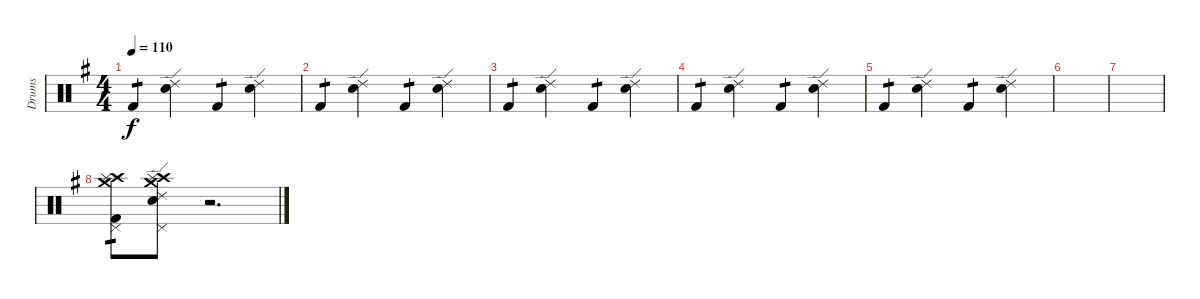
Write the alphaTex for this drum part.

\track ("Drums" "Drums") {instrument percussion}
\staff {score}
\articulation defaults
\ts (4 4)
\tempo 110
\clef neutral
\ks g "Kick (hit) 2".4{tp 1 dy f}
("Ride (edge) 2" "Snare (hit) 2").4 "Kick (hit) 2".4{tp 1} ("Ride (edge) 2" "Snare (hit) 2").4 |
"Kick (hit) 2".4{tp 1} ("Ride (edge) 2" "Snare (hit) 2").4 "Kick (hit) 2".4{tp 1} ("Ride (edge) 2" "Snare (hit) 2").4 |
"Kick (hit) 2".4{tp 1} ("Ride (edge) 2" "Snare (hit) 2").4 "Kick (hit) 2".4{tp 1} ("Ride (edge) 2" "Snare (hit) 2").4 |
"Kick (hit) 2".4{tp 1} ("Ride (edge) 2" "Snare (hit) 2").4 "Kick (hit) 2".4{tp 1} ("Ride (edge) 2" "Snare (hit) 2").4 |
"Kick (hit) 2".4{tp 1} ("Ride (edge) 2" "Snare (hit) 2").4 "Kick (hit) 2".4{tp 1} ("Ride (edge) 2" "Snare (hit) 2").4 |
|
|
("Pedal Hi-Hat (hit)" "Kick (hit) 2" "Crash high (hit)" "Crash medium (hit)" "Splash (hit)").8{tp 1} ("Pedal Hi-Hat (hit)" "Ride (edge) 2" "Snare (hit) 2" "Crash high (hit)" "Crash medium (hit)" "Splash (hit)").8 r.2{d}
